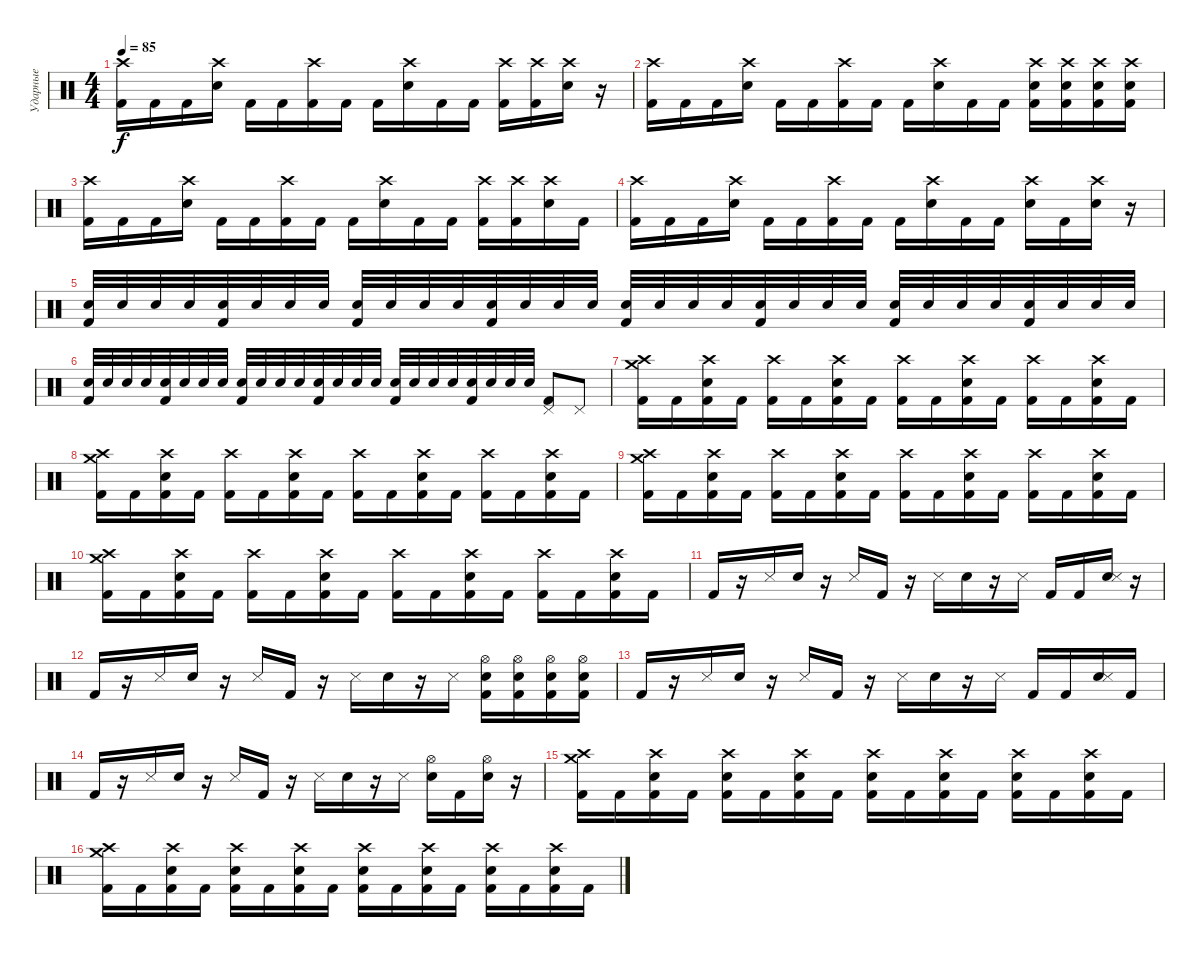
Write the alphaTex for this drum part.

\track ("Ударные" "Ударные") {instrument percussion}
\staff {score}
\articulation defaults
\ts (4 4)
\tempo 85
\clef neutral
\ks c
("Crash high (hit)" "Kick (hit) 2").16{dy f} "Kick (hit) 2".16 "Kick (hit) 2".16 ("Electric Snare (hit)" "Crash high (hit)").16 "Kick (hit) 2".16 "Kick (hit) 2".16 ("Crash high (hit)" "Kick (hit) 2").16 "Kick (hit) 2".16 "Kick (hit) 2".16 ("Electric Snare (hit)" "Crash high (hit)").16 "Kick (hit) 2".16 "Kick (hit) 2".16 ("Crash high (hit)" "Kick (hit) 2").16 ("Crash high (hit)" "Kick (hit) 2").16 ("Electric Snare (hit)" "Crash high (hit)").16 r.16 |
("Crash high (hit)" "Kick (hit) 2").16 "Kick (hit) 2".16 "Kick (hit) 2".16 ("Electric Snare (hit)" "Crash high (hit)").16 "Kick (hit) 2".16 "Kick (hit) 2".16 ("Crash high (hit)" "Kick (hit) 2").16 "Kick (hit) 2".16 "Kick (hit) 2".16 ("Electric Snare (hit)" "Crash high (hit)").16 "Kick (hit) 2".16 "Kick (hit) 2".16 ("Electric Snare (hit)" "Crash high (hit)" "Kick (hit) 2").16 ("Electric Snare (hit)" "Crash high (hit)" "Kick (hit) 2").16 ("Electric Snare (hit)" "Crash high (hit)" "Kick (hit) 2").16 ("Electric Snare (hit)" "Crash high (hit)" "Kick (hit) 2").16 |
("Crash high (hit)" "Kick (hit) 2").16 "Kick (hit) 2".16 "Kick (hit) 2".16 ("Electric Snare (hit)" "Crash high (hit)").16 "Kick (hit) 2".16 "Kick (hit) 2".16 ("Crash high (hit)" "Kick (hit) 2").16 "Kick (hit) 2".16 "Kick (hit) 2".16 ("Electric Snare (hit)" "Crash high (hit)").16 "Kick (hit) 2".16 "Kick (hit) 2".16 ("Crash high (hit)" "Kick (hit) 2").16 ("Crash high (hit)" "Kick (hit) 2").16 ("Electric Snare (hit)" "Crash high (hit)").16 "Kick (hit) 2".16 |
("Crash high (hit)" "Kick (hit) 2").16 "Kick (hit) 2".16 "Kick (hit) 2".16 ("Electric Snare (hit)" "Crash high (hit)").16 "Kick (hit) 2".16 "Kick (hit) 2".16 ("Crash high (hit)" "Kick (hit) 2").16 "Kick (hit) 2".16 "Kick (hit) 2".16 ("Electric Snare (hit)" "Crash high (hit)").16 "Kick (hit) 2".16 "Kick (hit) 2".16 ("Electric Snare (hit)" "Crash high (hit)").16 "Kick (hit) 2".16 ("Electric Snare (hit)" "Crash high (hit)").16 r.16 |
("Electric Snare (hit)" "Kick (hit) 2").32 "Electric Snare (hit)".32 "Electric Snare (hit)".32 "Electric Snare (hit)".32 ("Electric Snare (hit)" "Kick (hit) 2").32 "Electric Snare (hit)".32 "Electric Snare (hit)".32 "Electric Snare (hit)".32 ("Electric Snare (hit)" "Kick (hit) 2").32 "Electric Snare (hit)".32 "Electric Snare (hit)".32 "Electric Snare (hit)".32 ("Electric Snare (hit)" "Kick (hit) 2").32 "Electric Snare (hit)".32 "Electric Snare (hit)".32 "Electric Snare (hit)".32 ("Electric Snare (hit)" "Kick (hit) 2").32 "Electric Snare (hit)".32 "Electric Snare (hit)".32 "Electric Snare (hit)".32 ("Electric Snare (hit)" "Kick (hit) 2").32 "Electric Snare (hit)".32 "Electric Snare (hit)".32 "Electric Snare (hit)".32 ("Electric Snare (hit)" "Kick (hit) 2").32 "Electric Snare (hit)".32 "Electric Snare (hit)".32 "Electric Snare (hit)".32 ("Electric Snare (hit)" "Kick (hit) 2").32 "Electric Snare (hit)".32 "Electric Snare (hit)".32 "Electric Snare (hit)".32 |
("Electric Snare (hit)" "Kick (hit) 2").32 "Electric Snare (hit)".32 "Electric Snare (hit)".32 "Electric Snare (hit)".32 ("Electric Snare (hit)" "Kick (hit) 2").32 "Electric Snare (hit)".32 "Electric Snare (hit)".32 "Electric Snare (hit)".32 ("Electric Snare (hit)" "Kick (hit) 2").32 "Electric Snare (hit)".32 "Electric Snare (hit)".32 "Electric Snare (hit)".32 ("Electric Snare (hit)" "Kick (hit) 2").32 "Electric Snare (hit)".32 "Electric Snare (hit)".32 "Electric Snare (hit)".32 ("Electric Snare (hit)" "Kick (hit) 2").32 "Electric Snare (hit)".32 "Electric Snare (hit)".32 "Electric Snare (hit)".32 ("Electric Snare (hit)" "Kick (hit) 2").32 "Electric Snare (hit)".32 "Electric Snare (hit)".32 "Electric Snare (hit)".32 ("Pedal Hi-Hat (hit)" "Kick (hit) 2").8 "Pedal Hi-Hat (hit)".8 |
("Crash medium (hit)" "Crash high (hit)" "Kick (hit) 2").16 "Kick (hit) 2".16 ("Electric Snare (hit)" "Crash high (hit)" "Kick (hit) 2").16 "Kick (hit) 2".16 ("Crash high (hit)" "Kick (hit) 2").16 "Kick (hit) 2".16 ("Electric Snare (hit)" "Crash high (hit)" "Kick (hit) 2").16 "Kick (hit) 2".16 ("Crash high (hit)" "Kick (hit) 2").16 "Kick (hit) 2".16 ("Electric Snare (hit)" "Crash high (hit)" "Kick (hit) 2").16 "Kick (hit) 2".16 ("Crash high (hit)" "Kick (hit) 2").16 "Kick (hit) 2".16 ("Electric Snare (hit)" "Crash high (hit)" "Kick (hit) 2").16 "Kick (hit) 2".16 |
("Crash medium (hit)" "Crash high (hit)" "Kick (hit) 2").16 "Kick (hit) 2".16 ("Electric Snare (hit)" "Crash high (hit)" "Kick (hit) 2").16 "Kick (hit) 2".16 ("Crash high (hit)" "Kick (hit) 2").16 "Kick (hit) 2".16 ("Electric Snare (hit)" "Crash high (hit)" "Kick (hit) 2").16 "Kick (hit) 2".16 ("Crash high (hit)" "Kick (hit) 2").16 "Kick (hit) 2".16 ("Electric Snare (hit)" "Crash high (hit)" "Kick (hit) 2").16 "Kick (hit) 2".16 ("Crash high (hit)" "Kick (hit) 2").16 "Kick (hit) 2".16 ("Electric Snare (hit)" "Crash high (hit)" "Kick (hit) 2").16 "Kick (hit) 2".16 |
("Crash medium (hit)" "Crash high (hit)" "Kick (hit) 2").16 "Kick (hit) 2".16 ("Electric Snare (hit)" "Crash high (hit)" "Kick (hit) 2").16 "Kick (hit) 2".16 ("Crash high (hit)" "Kick (hit) 2").16 "Kick (hit) 2".16 ("Electric Snare (hit)" "Crash high (hit)" "Kick (hit) 2").16 "Kick (hit) 2".16 ("Crash high (hit)" "Kick (hit) 2").16 "Kick (hit) 2".16 ("Electric Snare (hit)" "Crash high (hit)" "Kick (hit) 2").16 "Kick (hit) 2".16 ("Crash high (hit)" "Kick (hit) 2").16 "Kick (hit) 2".16 ("Electric Snare (hit)" "Crash high (hit)" "Kick (hit) 2").16 "Kick (hit) 2".16 |
("Crash medium (hit)" "Crash high (hit)" "Kick (hit) 2").16 "Kick (hit) 2".16 ("Electric Snare (hit)" "Crash high (hit)" "Kick (hit) 2").16 "Kick (hit) 2".16 ("Crash high (hit)" "Kick (hit) 2").16 "Kick (hit) 2".16 ("Electric Snare (hit)" "Crash high (hit)" "Kick (hit) 2").16 "Kick (hit) 2".16 ("Crash high (hit)" "Kick (hit) 2").16 "Kick (hit) 2".16 ("Electric Snare (hit)" "Crash high (hit)" "Kick (hit) 2").16 "Kick (hit) 2".16 ("Crash high (hit)" "Kick (hit) 2").16 "Kick (hit) 2".16 ("Electric Snare (hit)" "Crash high (hit)" "Kick (hit) 2").16 "Kick (hit) 2".16 |
"Kick (hit) 2".16 r.16 "Snare (side stick) 3".16 "Electric Snare (hit)".16 r.16 "Snare (side stick) 3".16 "Kick (hit) 2".16 r.16 "Snare (side stick) 3".16 "Electric Snare (hit)".16 r.16 "Snare (side stick) 3".16 "Kick (hit) 2".16 "Kick (hit) 2".16 ("Electric Snare (hit)" "Snare (side stick) 3").16 r.16 |
"Kick (hit) 2".16 r.16 "Snare (side stick) 3".16 "Electric Snare (hit)".16 r.16 "Snare (side stick) 3".16 "Kick (hit) 2".16 r.16 "Snare (side stick) 3".16 "Electric Snare (hit)".16 r.16 "Snare (side stick) 3".16 ("Electric Snare (hit)" "Hi-Hat (open)" "Kick (hit) 2").16 ("Electric Snare (hit)" "Hi-Hat (open)" "Kick (hit) 2").16 ("Electric Snare (hit)" "Hi-Hat (open)" "Kick (hit) 2").16 ("Electric Snare (hit)" "Hi-Hat (open)" "Kick (hit) 2").16 |
"Kick (hit) 2".16 r.16 "Snare (side stick) 3".16 "Electric Snare (hit)".16 r.16 "Snare (side stick) 3".16 "Kick (hit) 2".16 r.16 "Snare (side stick) 3".16 "Electric Snare (hit)".16 r.16 "Snare (side stick) 3".16 "Kick (hit) 2".16 "Kick (hit) 2".16 ("Electric Snare (hit)" "Snare (side stick) 3").16 "Kick (hit) 2".16 |
"Kick (hit) 2".16 r.16 "Snare (side stick) 3".16 "Electric Snare (hit)".16 r.16 "Snare (side stick) 3".16 "Kick (hit) 2".16 r.16 "Snare (side stick) 3".16 "Electric Snare (hit)".16 r.16 "Snare (side stick) 3".16 ("Electric Snare (hit)" "Hi-Hat (open)").16 "Kick (hit) 2".16 ("Electric Snare (hit)" "Hi-Hat (open)").16 r.16 |
("Crash medium (hit)" "Crash high (hit)" "Kick (hit) 2").16 "Kick (hit) 2".16 ("Electric Snare (hit)" "Crash high (hit)" "Kick (hit) 2").16 "Kick (hit) 2".16 ("Electric Snare (hit)" "Crash high (hit)" "Kick (hit) 2").16 "Kick (hit) 2".16 ("Electric Snare (hit)" "Crash high (hit)" "Kick (hit) 2").16 "Kick (hit) 2".16 ("Electric Snare (hit)" "Crash high (hit)" "Kick (hit) 2").16 "Kick (hit) 2".16 ("Electric Snare (hit)" "Crash high (hit)" "Kick (hit) 2").16 "Kick (hit) 2".16 ("Electric Snare (hit)" "Crash high (hit)" "Kick (hit) 2").16 "Kick (hit) 2".16 ("Electric Snare (hit)" "Crash high (hit)" "Kick (hit) 2").16 "Kick (hit) 2".16 |
("Crash medium (hit)" "Crash high (hit)" "Kick (hit) 2").16 "Kick (hit) 2".16 ("Electric Snare (hit)" "Crash high (hit)" "Kick (hit) 2").16 "Kick (hit) 2".16 ("Electric Snare (hit)" "Crash high (hit)" "Kick (hit) 2").16 "Kick (hit) 2".16 ("Electric Snare (hit)" "Crash high (hit)" "Kick (hit) 2").16 "Kick (hit) 2".16 ("Electric Snare (hit)" "Crash high (hit)" "Kick (hit) 2").16 "Kick (hit) 2".16 ("Electric Snare (hit)" "Crash high (hit)" "Kick (hit) 2").16 "Kick (hit) 2".16 ("Electric Snare (hit)" "Crash high (hit)" "Kick (hit) 2").16 "Kick (hit) 2".16 ("Electric Snare (hit)" "Crash high (hit)" "Kick (hit) 2").16 "Kick (hit) 2".16
